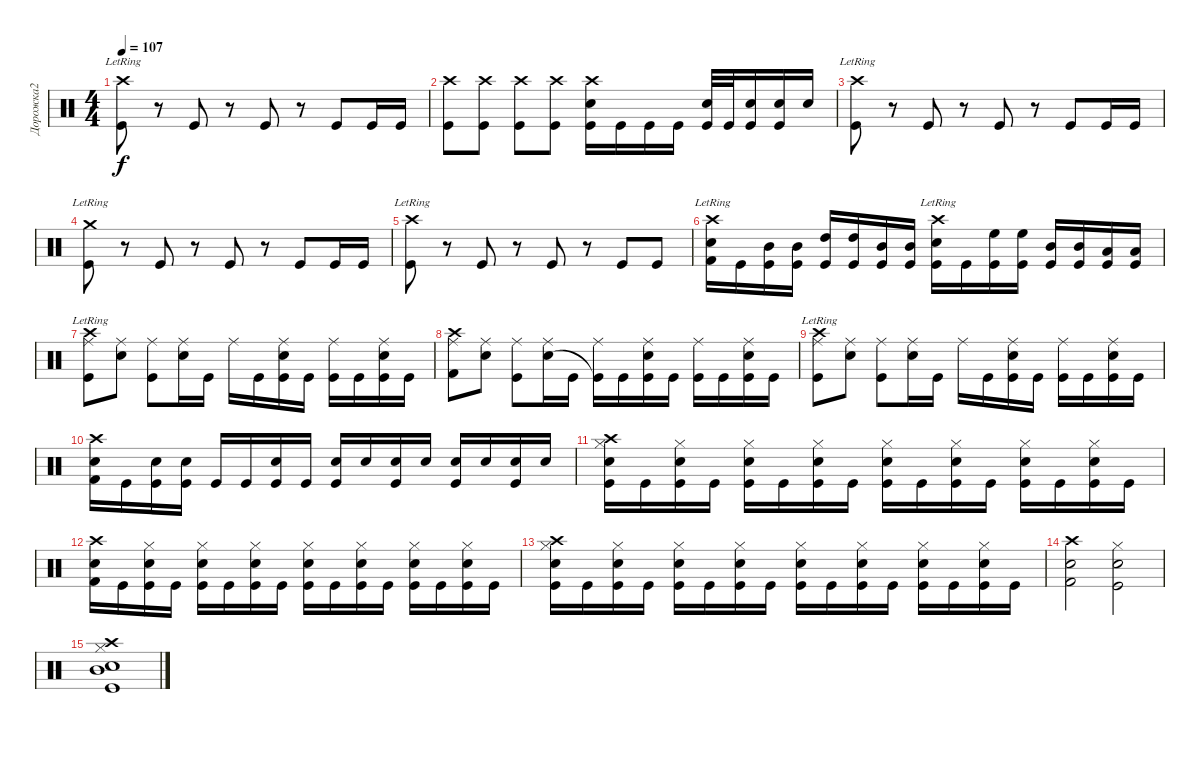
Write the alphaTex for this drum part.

\track ("Дорожка2" "Дорожка2") {instrument percussion}
\staff {score}
\articulation defaults
\ts (4 4)
\tempo 107
\clef neutral
\ks c
("Crash high (hit)"{lr} "Kick (hit)").8{dy f} r.8 "Kick (hit)".8 r.8 "Kick (hit)".8 r.8 "Kick (hit)".8 "Kick (hit)".16 "Kick (hit)".16 |
("Crash high (hit)" "Kick (hit)").8 ("Crash high (hit)" "Kick (hit)").8 ("Crash high (hit)" "Kick (hit)").8 ("Crash high (hit)" "Kick (hit)").8 ("Crash high (hit)" "Electric Snare (hit)" "Kick (hit)").16 "Kick (hit)".16 "Kick (hit)".16 "Kick (hit)".16 ("Electric Snare (hit)" "Kick (hit)").32 "Kick (hit)".32 ("Electric Snare (hit)" "Kick (hit)").16 ("Electric Snare (hit)" "Kick (hit)").16 "Electric Snare (hit)".16 |
("Crash high (hit)"{lr} "Kick (hit)").8 r.8 "Kick (hit)".8 r.8 "Kick (hit)".8 r.8 "Kick (hit)".8 "Kick (hit)".16 "Kick (hit)".16 |
("Crash medium (hit)"{lr} "Kick (hit)").8 r.8 "Kick (hit)".8 r.8 "Kick (hit)".8 r.8 "Kick (hit)".8 "Kick (hit)".16 "Kick (hit)".16 |
("Crash high (hit)"{lr} "Kick (hit)").8 r.8 "Kick (hit)".8 r.8 "Kick (hit)".8 r.8 "Kick (hit)".8 "Kick (hit)".8 |
("Crash high (hit)"{lr} "Electric Snare (hit)" "Kick (hit) 2").16 "Kick (hit)".16 ("Mid Tom (hit)" "Kick (hit)").16 ("Mid Tom (hit)" "Kick (hit)").16 ("High Tom (hit)" "Kick (hit)").16 ("High Tom (hit)" "Kick (hit)").16 ("Mid Tom (hit)" "Kick (hit)").16 ("Mid Tom (hit)" "Kick (hit)").16 ("Crash high (hit)"{lr} "Electric Snare (hit)" "Kick (hit)").16 "Kick (hit)".16 ("High Floor Tom (hit)" "Kick (hit)").16 ("High Floor Tom (hit)" "Kick (hit)").16 ("Mid Tom (hit)" "Kick (hit)").16 ("Mid Tom (hit)" "Kick (hit)").16 ("Low Tom (hit)" "Kick (hit)").16 ("Low Tom (hit)" "Kick (hit)").16 |
("Crash high (hit)"{lr} "Ride (middle)" "Kick (hit)").8 ("Ride (middle)" "Electric Snare (hit)").8 ("Ride (middle)" "Kick (hit)").8 ("Ride (middle)" "Electric Snare (hit)").16 "Kick (hit)".16 "Ride (middle)".16 "Kick (hit)".16 ("Ride (middle)" "Electric Snare (hit)" "Kick (hit)").16 "Kick (hit)".16 ("Ride (middle)" "Kick (hit)").16 "Kick (hit)".16 ("Ride (middle)" "Electric Snare (hit)" "Kick (hit)").16 "Kick (hit)".16 |
("Crash high (hit)" "Ride (middle)" "Kick (hit) 2").8 ("Ride (middle)" "Electric Snare (hit)").8 ("Ride (middle)" "Kick (hit)").8 ("Ride (middle)" "Electric Snare (hit)").16 "Kick (hit)".16 ("Ride (middle)" "Kick (hit)"{t}).16 "Kick (hit)".16 ("Ride (middle)" "Electric Snare (hit)" "Kick (hit)").16 "Kick (hit)".16 ("Ride (middle)" "Kick (hit)").16 "Kick (hit)".16 ("Ride (middle)" "Electric Snare (hit)" "Kick (hit)").16 "Kick (hit)".16 |
("Crash high (hit)"{lr} "Ride (middle)" "Kick (hit)").8 ("Ride (middle)" "Electric Snare (hit)").8 ("Ride (middle)" "Kick (hit)").8 ("Ride (middle)" "Electric Snare (hit)").16 "Kick (hit)".16 "Ride (middle)".16 "Kick (hit)".16 ("Ride (middle)" "Electric Snare (hit)" "Kick (hit)").16 "Kick (hit)".16 ("Ride (middle)" "Kick (hit)").16 "Kick (hit)".16 ("Ride (middle)" "Electric Snare (hit)" "Kick (hit)").16 "Kick (hit)".16 |
("Crash high (hit)" "Electric Snare (hit)" "Kick (hit) 2").16 "Kick (hit)".16 ("Electric Snare (hit)" "Kick (hit)").16 ("Electric Snare (hit)" "Kick (hit)").16 "Kick (hit)".16 "Kick (hit)".16 ("Electric Snare (hit)" "Kick (hit)").16 "Kick (hit)".16 ("Electric Snare (hit)" "Kick (hit)").16 "Electric Snare (hit)".16 ("Electric Snare (hit)" "Kick (hit)").16 "Electric Snare (hit)".16 ("Electric Snare (hit)" "Kick (hit)").16 "Electric Snare (hit)".16 ("Electric Snare (hit)" "Kick (hit)").16 "Electric Snare (hit)".16 |
("Crash high (hit)" "Hi-Hat (closed)" "Electric Snare (hit)" "Kick (hit)").16 "Kick (hit)".16 ("Hi-Hat (closed)" "Electric Snare (hit)" "Kick (hit)").16 "Kick (hit)".16 ("Hi-Hat (closed)" "Electric Snare (hit)" "Kick (hit)").16 "Kick (hit)".16 ("Hi-Hat (closed)" "Electric Snare (hit)" "Kick (hit)").16 "Kick (hit)".16 ("Hi-Hat (closed)" "Electric Snare (hit)" "Kick (hit)").16 "Kick (hit)".16 ("Hi-Hat (closed)" "Electric Snare (hit)" "Kick (hit)").16 "Kick (hit)".16 ("Hi-Hat (closed)" "Electric Snare (hit)" "Kick (hit)").16 "Kick (hit)".16 ("Hi-Hat (closed)" "Electric Snare (hit)" "Kick (hit)").16 "Kick (hit)".16 |
("Crash high (hit)" "Electric Snare (hit)" "Kick (hit) 2").16 "Kick (hit)".16 ("Hi-Hat (closed)" "Electric Snare (hit)" "Kick (hit)").16 "Kick (hit)".16 ("Hi-Hat (closed)" "Electric Snare (hit)" "Kick (hit)").16 "Kick (hit)".16 ("Hi-Hat (closed)" "Electric Snare (hit)" "Kick (hit)").16 "Kick (hit)".16 ("Hi-Hat (closed)" "Electric Snare (hit)" "Kick (hit)").16 "Kick (hit)".16 ("Hi-Hat (closed)" "Electric Snare (hit)" "Kick (hit)").16 "Kick (hit)".16 ("Hi-Hat (closed)" "Electric Snare (hit)" "Kick (hit)").16 "Kick (hit)".16 ("Hi-Hat (closed)" "Electric Snare (hit)" "Kick (hit)").16 "Kick (hit)".16 |
("Crash high (hit)" "Hi-Hat (closed)" "Electric Snare (hit)" "Kick (hit)").16 "Kick (hit)".16 ("Hi-Hat (closed)" "Electric Snare (hit)" "Kick (hit)").16 "Kick (hit)".16 ("Hi-Hat (closed)" "Electric Snare (hit)" "Kick (hit)").16 "Kick (hit)".16 ("Hi-Hat (closed)" "Electric Snare (hit)" "Kick (hit)").16 "Kick (hit)".16 ("Hi-Hat (closed)" "Electric Snare (hit)" "Kick (hit)").16 "Kick (hit)".16 ("Hi-Hat (closed)" "Electric Snare (hit)" "Kick (hit)").16 "Kick (hit)".16 ("Hi-Hat (closed)" "Electric Snare (hit)" "Kick (hit)").16 "Kick (hit)".16 ("Hi-Hat (closed)" "Electric Snare (hit)" "Kick (hit)").16 "Kick (hit)".16 |
("Crash high (hit)" "Electric Snare (hit)" "Kick (hit) 2").2 ("Hi-Hat (closed)" "Electric Snare (hit)" "Kick (hit)").2 |
("Crash high (hit)" "Hi-Hat (closed)" "Mid Tom (hit)" "Electric Snare (hit)" "Kick (hit)").1
